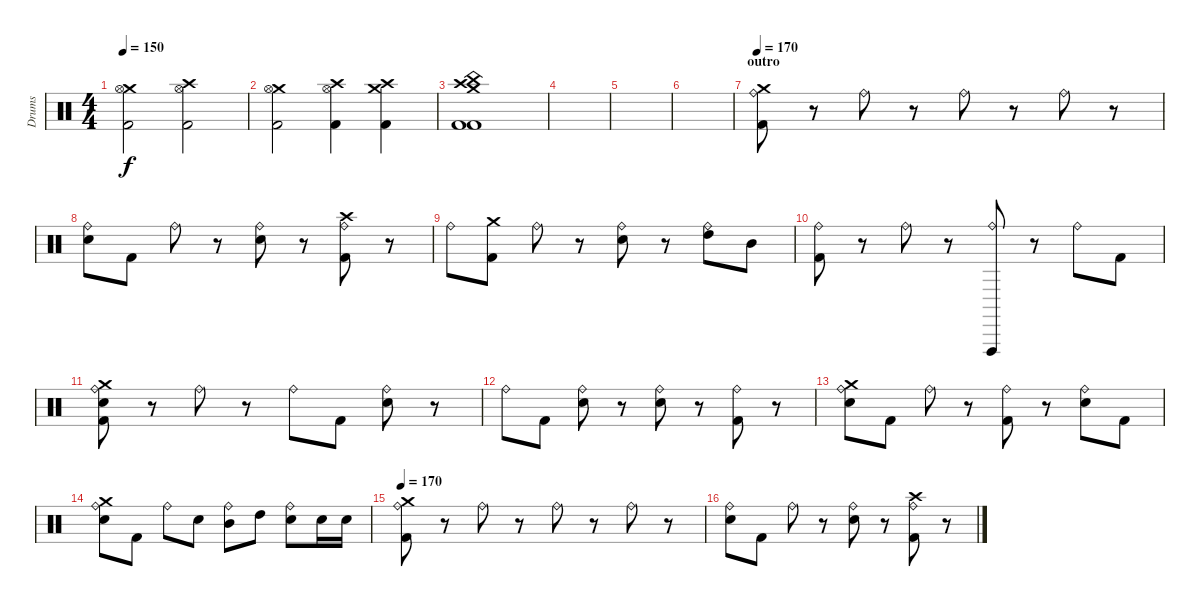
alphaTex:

\track ("Drums" "Drums") {instrument percussion}
\staff {score}
\articulation defaults
\ts (4 4)
\tempo 150
\clef neutral
\ks c
("Crash medium (hit)" "Hi-Hat (open)" "Kick (hit) 2").2{dy f} ("Crash high (hit)" "Hi-Hat (open)" "Kick (hit) 2").2 |
("Crash medium (hit)" "Hi-Hat (open)" "Kick (hit) 2").2 ("Crash high (hit)" "Hi-Hat (open)" "Kick (hit) 2").4 ("Crash high (hit)" "Crash medium (hit)" "Kick (hit) 2").4 |
("China (hit)" "Crash high (hit)" "Crash medium (hit)" "Kick (hit) 2" "Kick (hit) 2").1 |
|
|
|
\section ("" "outro")
\tempo 170
("Crash medium (hit)" "Ride (bell)" "Kick (hit) 2").8 r.8 "Ride (bell)".8 r.8 "Ride (bell)".8 r.8 "Ride (bell)".8 r.8 |
("Ride (bell)" "Electric Snare (hit)").8 "Kick (hit) 2".8 "Ride (bell)".8 r.8 ("Ride (bell)" "Electric Snare (hit)").8 r.8 ("Crash high (hit)" "Ride (bell)" "Kick (hit) 2").8 r.8 |
"Ride (bell)".8 ("Crash medium (hit)" "Kick (hit) 2").8 "Ride (bell)".8 r.8 ("Ride (bell)" "Electric Snare (hit)").8 r.8 ("Ride (bell)" "High Tom (hit)").8 "Mid Tom (hit)".8 |
("Ride (bell)" "Kick (hit) 2").8 r.8 "Ride (bell)".8 r.8 ("Vibraslap (hit)" "Ride (bell)").8 r.8 "Ride (bell)".8 "Kick (hit) 2".8 |
("Crash medium (hit)" "Ride (bell)" "Electric Snare (hit)" "Kick (hit) 2").8 r.8 "Ride (bell)".8 r.8 "Ride (bell)".8 "Kick (hit) 2".8 ("Ride (bell)" "Electric Snare (hit)").8 r.8 |
"Ride (bell)".8 "Kick (hit) 2".8 ("Ride (bell)" "Electric Snare (hit)").8 r.8 ("Ride (bell)" "Electric Snare (hit)").8 r.8 ("Ride (bell)" "Kick (hit) 2").8 r.8 |
("Crash medium (hit)" "Ride (bell)" "Electric Snare (hit)").8 "Kick (hit) 2".8 "Ride (bell)".8 r.8 ("Ride (bell)" "Kick (hit) 2").8 r.8 ("Ride (bell)" "Electric Snare (hit)").8 "Kick (hit) 2".8 |
("Crash medium (hit)" "Ride (bell)" "Electric Snare (hit)").8 "Kick (hit) 2".8 "Ride (bell)".8 "Electric Snare (hit)".8 ("Ride (bell)" "Mid Tom (hit)").8 "High Tom (hit)".8 ("Ride (bell)" "Electric Snare (hit)").8 "Electric Snare (hit)".16 "Electric Snare (hit)".16 |
\tempo 170
("Crash medium (hit)" "Ride (bell)" "Kick (hit) 2").8 r.8 "Ride (bell)".8 r.8 "Ride (bell)".8 r.8 "Ride (bell)".8 r.8 |
("Ride (bell)" "Electric Snare (hit)").8 "Kick (hit) 2".8 "Ride (bell)".8 r.8 ("Ride (bell)" "Electric Snare (hit)").8 r.8 ("Crash high (hit)" "Ride (bell)" "Kick (hit) 2").8 r.8
